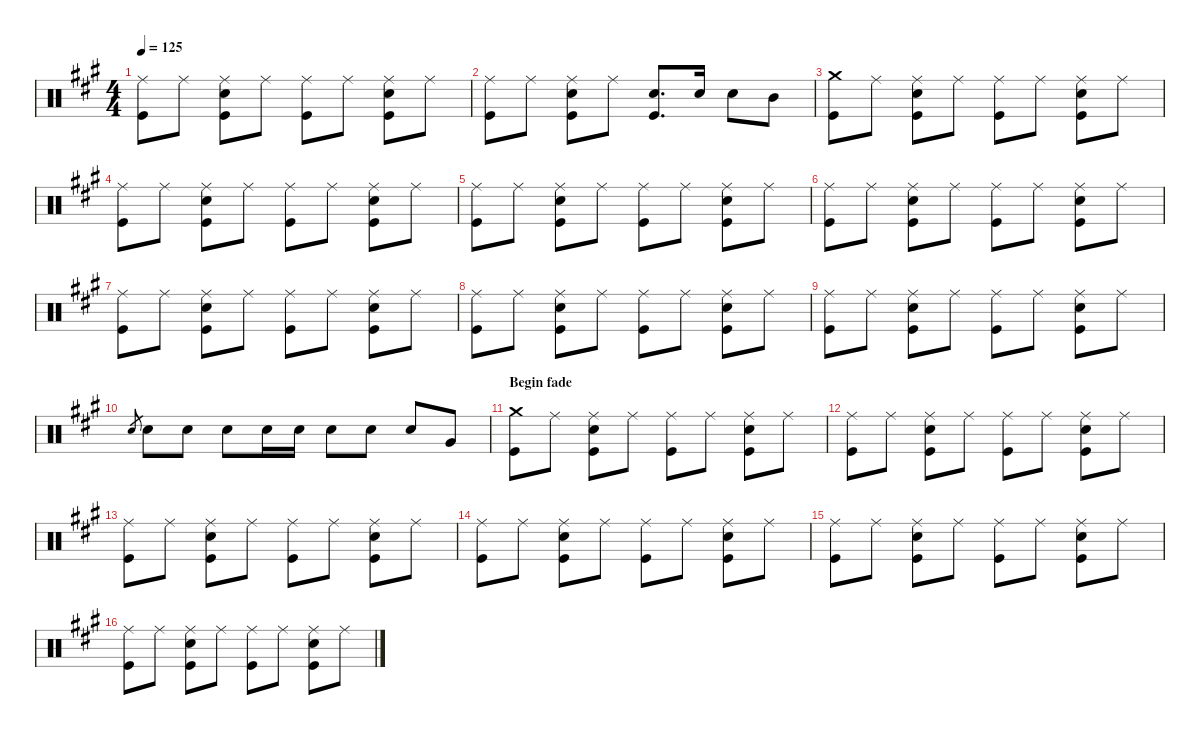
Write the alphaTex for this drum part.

\defaultSystemsLayout 4
\hideDynamics
\bracketExtendMode nobrackets
\singleTrackTrackNamePolicy hidden
\multiTrackTrackNamePolicy hidden
\otherSystemsTrackNameOrientation horizontal
\track ("Drums" "drm.") {instrument percussion}
\staff {score}
\articulation defaults
\ts (4 4)
\tempo 125
\clef neutral
\ks a
("Ride (middle)"{acc forcenatural} "Kick (hit)"{acc forcenatural}).8{dy f beam Down} "Ride (middle)"{acc forcenatural}.8{beam Down} ("Ride (middle)"{acc forcenatural} "Snare (hit) 2"{acc forcenatural} "Kick (hit)"{acc forcenatural}).8{beam Down} "Ride (middle)"{acc forcenatural}.8{beam Down} ("Ride (middle)"{acc forcenatural} "Kick (hit)"{acc forcenatural}).8{beam Down} "Ride (middle)"{acc forcenatural}.8{beam Down} ("Ride (middle)"{acc forcenatural} "Snare (hit) 2"{acc forcenatural} "Kick (hit)"{acc forcenatural}).8{beam Down} "Ride (middle)"{acc forcenatural}.8{beam Down} |
("Ride (middle)"{acc forcenatural} "Kick (hit)"{acc forcenatural}).8{beam Down} "Ride (middle)"{acc forcenatural}.8{beam Down} ("Ride (middle)"{acc forcenatural} "Snare (hit) 2"{acc forcenatural} "Kick (hit)"{acc forcenatural}).8{beam Down} "Ride (middle)"{acc forcenatural}.8{beam Down} ("Snare (hit) 2"{acc forcenatural} "Kick (hit)"{acc forcenatural}).8{d beam Up} "Snare (hit) 2"{acc forcenatural}.16{beam Up} "Snare (hit) 2"{acc forcenatural}.8{beam Down} "Mid Tom (hit)"{acc forcenatural}.8{beam Down} |
("Crash medium (hit)"{acc forcenatural} "Kick (hit)"{acc forcenatural}).8{beam Down} "Ride (middle)"{acc forcenatural}.8{beam Down} ("Ride (middle)"{acc forcenatural} "Snare (hit) 2"{acc forcenatural} "Kick (hit)"{acc forcenatural}).8{beam Down} "Ride (middle)"{acc forcenatural}.8{beam Down} ("Ride (middle)"{acc forcenatural} "Kick (hit)"{acc forcenatural}).8{beam Down} "Ride (middle)"{acc forcenatural}.8{beam Down} ("Ride (middle)"{acc forcenatural} "Snare (hit) 2"{acc forcenatural} "Kick (hit)"{acc forcenatural}).8{beam Down} "Ride (middle)"{acc forcenatural}.8{beam Down} |
("Ride (middle)"{acc forcenatural} "Kick (hit)"{acc forcenatural}).8{beam Down} "Ride (middle)"{acc forcenatural}.8{beam Down} ("Ride (middle)"{acc forcenatural} "Snare (hit) 2"{acc forcenatural} "Kick (hit)"{acc forcenatural}).8{beam Down} "Ride (middle)"{acc forcenatural}.8{beam Down} ("Ride (middle)"{acc forcenatural} "Kick (hit)"{acc forcenatural}).8{beam Down} "Ride (middle)"{acc forcenatural}.8{beam Down} ("Ride (middle)"{acc forcenatural} "Snare (hit) 2"{acc forcenatural} "Kick (hit)"{acc forcenatural}).8{beam Down} "Ride (middle)"{acc forcenatural}.8{beam Down} |
("Ride (middle)"{acc forcenatural} "Kick (hit)"{acc forcenatural}).8{beam Down} "Ride (middle)"{acc forcenatural}.8{beam Down} ("Ride (middle)"{acc forcenatural} "Snare (hit) 2"{acc forcenatural} "Kick (hit)"{acc forcenatural}).8{beam Down} "Ride (middle)"{acc forcenatural}.8{beam Down} ("Ride (middle)"{acc forcenatural} "Kick (hit)"{acc forcenatural}).8{beam Down} "Ride (middle)"{acc forcenatural}.8{beam Down} ("Ride (middle)"{acc forcenatural} "Snare (hit) 2"{acc forcenatural} "Kick (hit)"{acc forcenatural}).8{beam Down} "Ride (middle)"{acc forcenatural}.8{beam Down} |
("Ride (middle)"{acc forcenatural} "Kick (hit)"{acc forcenatural}).8{beam Down} "Ride (middle)"{acc forcenatural}.8{beam Down} ("Ride (middle)"{acc forcenatural} "Snare (hit) 2"{acc forcenatural} "Kick (hit)"{acc forcenatural}).8{beam Down} "Ride (middle)"{acc forcenatural}.8{beam Down} ("Ride (middle)"{acc forcenatural} "Kick (hit)"{acc forcenatural}).8{beam Down} "Ride (middle)"{acc forcenatural}.8{beam Down} ("Ride (middle)"{acc forcenatural} "Snare (hit) 2"{acc forcenatural} "Kick (hit)"{acc forcenatural}).8{beam Down} "Ride (middle)"{acc forcenatural}.8{beam Down} |
("Ride (middle)"{acc forcenatural} "Kick (hit)"{acc forcenatural}).8{beam Down} "Ride (middle)"{acc forcenatural}.8{beam Down} ("Ride (middle)"{acc forcenatural} "Snare (hit) 2"{acc forcenatural} "Kick (hit)"{acc forcenatural}).8{beam Down} "Ride (middle)"{acc forcenatural}.8{beam Down} ("Ride (middle)"{acc forcenatural} "Kick (hit)"{acc forcenatural}).8{beam Down} "Ride (middle)"{acc forcenatural}.8{beam Down} ("Ride (middle)"{acc forcenatural} "Snare (hit) 2"{acc forcenatural} "Kick (hit)"{acc forcenatural}).8{beam Down} "Ride (middle)"{acc forcenatural}.8{beam Down} |
("Ride (middle)"{acc forcenatural} "Kick (hit)"{acc forcenatural}).8{beam Down} "Ride (middle)"{acc forcenatural}.8{beam Down} ("Ride (middle)"{acc forcenatural} "Snare (hit) 2"{acc forcenatural} "Kick (hit)"{acc forcenatural}).8{beam Down} "Ride (middle)"{acc forcenatural}.8{beam Down} ("Ride (middle)"{acc forcenatural} "Kick (hit)"{acc forcenatural}).8{beam Down} "Ride (middle)"{acc forcenatural}.8{beam Down} ("Ride (middle)"{acc forcenatural} "Snare (hit) 2"{acc forcenatural} "Kick (hit)"{acc forcenatural}).8{beam Down} "Ride (middle)"{acc forcenatural}.8{beam Down} |
("Ride (middle)"{acc forcenatural} "Kick (hit)"{acc forcenatural}).8{beam Down} "Ride (middle)"{acc forcenatural}.8{beam Down} ("Ride (middle)"{acc forcenatural} "Snare (hit) 2"{acc forcenatural} "Kick (hit)"{acc forcenatural}).8{beam Down} "Ride (middle)"{acc forcenatural}.8{beam Down} ("Ride (middle)"{acc forcenatural} "Kick (hit)"{acc forcenatural}).8{beam Down} "Ride (middle)"{acc forcenatural}.8{beam Down} ("Ride (middle)"{acc forcenatural} "Snare (hit) 2"{acc forcenatural} "Kick (hit)"{acc forcenatural}).8{beam Down} "Ride (middle)"{acc forcenatural}.8{beam Down} |
"Snare (hit) 2"{acc forcenatural}.8{gr dy mf beam Up} "Snare (hit) 2"{acc forcenatural}.8{dy f beam Down} "Snare (hit) 2"{acc forcenatural}.8{beam Down} "Snare (hit) 2"{acc forcenatural}.8{beam Down} "Snare (hit) 2"{acc forcenatural}.16{beam Down} "Snare (hit) 2"{acc forcenatural}.16{beam Down} "Snare (hit) 2"{acc forcenatural}.8{beam Down} "Snare (hit) 2"{acc forcenatural}.8{beam Down} "Snare (hit) 2"{acc forcenatural}.8{beam Up} "Very Low Tom (hit)"{acc forcenatural}.8{beam Up} |
\section ("" "Begin fade")
("Crash medium (hit)"{acc forcenatural} "Kick (hit)"{acc forcenatural}).8{beam Down} "Ride (middle)"{acc forcenatural}.8{beam Down} ("Ride (middle)"{acc forcenatural} "Snare (hit) 2"{acc forcenatural} "Kick (hit)"{acc forcenatural}).8{beam Down} "Ride (middle)"{acc forcenatural}.8{beam Down} ("Ride (middle)"{acc forcenatural} "Kick (hit)"{acc forcenatural}).8{beam Down} "Ride (middle)"{acc forcenatural}.8{beam Down} ("Ride (middle)"{acc forcenatural} "Snare (hit) 2"{acc forcenatural} "Kick (hit)"{acc forcenatural}).8{beam Down} "Ride (middle)"{acc forcenatural}.8{beam Down} |
("Ride (middle)"{acc forcenatural} "Kick (hit)"{acc forcenatural}).8{beam Down} "Ride (middle)"{acc forcenatural}.8{beam Down} ("Ride (middle)"{acc forcenatural} "Snare (hit) 2"{acc forcenatural} "Kick (hit)"{acc forcenatural}).8{beam Down} "Ride (middle)"{acc forcenatural}.8{beam Down} ("Ride (middle)"{acc forcenatural} "Kick (hit)"{acc forcenatural}).8{beam Down} "Ride (middle)"{acc forcenatural}.8{beam Down} ("Ride (middle)"{acc forcenatural} "Snare (hit) 2"{acc forcenatural} "Kick (hit)"{acc forcenatural}).8{beam Down} "Ride (middle)"{acc forcenatural}.8{beam Down} |
("Ride (middle)"{acc forcenatural} "Kick (hit)"{acc forcenatural}).8{beam Down} "Ride (middle)"{acc forcenatural}.8{beam Down} ("Ride (middle)"{acc forcenatural} "Snare (hit) 2"{acc forcenatural} "Kick (hit)"{acc forcenatural}).8{beam Down} "Ride (middle)"{acc forcenatural}.8{beam Down} ("Ride (middle)"{acc forcenatural} "Kick (hit)"{acc forcenatural}).8{beam Down} "Ride (middle)"{acc forcenatural}.8{beam Down} ("Ride (middle)"{acc forcenatural} "Snare (hit) 2"{acc forcenatural} "Kick (hit)"{acc forcenatural}).8{beam Down} "Ride (middle)"{acc forcenatural}.8{beam Down} |
("Ride (middle)"{acc forcenatural} "Kick (hit)"{acc forcenatural}).8{beam Down} "Ride (middle)"{acc forcenatural}.8{beam Down} ("Ride (middle)"{acc forcenatural} "Snare (hit) 2"{acc forcenatural} "Kick (hit)"{acc forcenatural}).8{beam Down} "Ride (middle)"{acc forcenatural}.8{beam Down} ("Ride (middle)"{acc forcenatural} "Kick (hit)"{acc forcenatural}).8{beam Down} "Ride (middle)"{acc forcenatural}.8{beam Down} ("Ride (middle)"{acc forcenatural} "Snare (hit) 2"{acc forcenatural} "Kick (hit)"{acc forcenatural}).8{beam Down} "Ride (middle)"{acc forcenatural}.8{beam Down} |
("Ride (middle)"{acc forcenatural} "Kick (hit)"{acc forcenatural}).8{beam Down} "Ride (middle)"{acc forcenatural}.8{beam Down} ("Ride (middle)"{acc forcenatural} "Snare (hit) 2"{acc forcenatural} "Kick (hit)"{acc forcenatural}).8{beam Down} "Ride (middle)"{acc forcenatural}.8{beam Down} ("Ride (middle)"{acc forcenatural} "Kick (hit)"{acc forcenatural}).8{beam Down} "Ride (middle)"{acc forcenatural}.8{beam Down} ("Ride (middle)"{acc forcenatural} "Snare (hit) 2"{acc forcenatural} "Kick (hit)"{acc forcenatural}).8{beam Down} "Ride (middle)"{acc forcenatural}.8{beam Down} |
("Ride (middle)"{acc forcenatural} "Kick (hit)"{acc forcenatural}).8{beam Down} "Ride (middle)"{acc forcenatural}.8{beam Down} ("Ride (middle)"{acc forcenatural} "Snare (hit) 2"{acc forcenatural} "Kick (hit)"{acc forcenatural}).8{beam Down} "Ride (middle)"{acc forcenatural}.8{beam Down} ("Ride (middle)"{acc forcenatural} "Kick (hit)"{acc forcenatural}).8{beam Down} "Ride (middle)"{acc forcenatural}.8{beam Down} ("Ride (middle)"{acc forcenatural} "Snare (hit) 2"{acc forcenatural} "Kick (hit)"{acc forcenatural}).8{beam Down} "Ride (middle)"{acc forcenatural}.8{beam Down}
